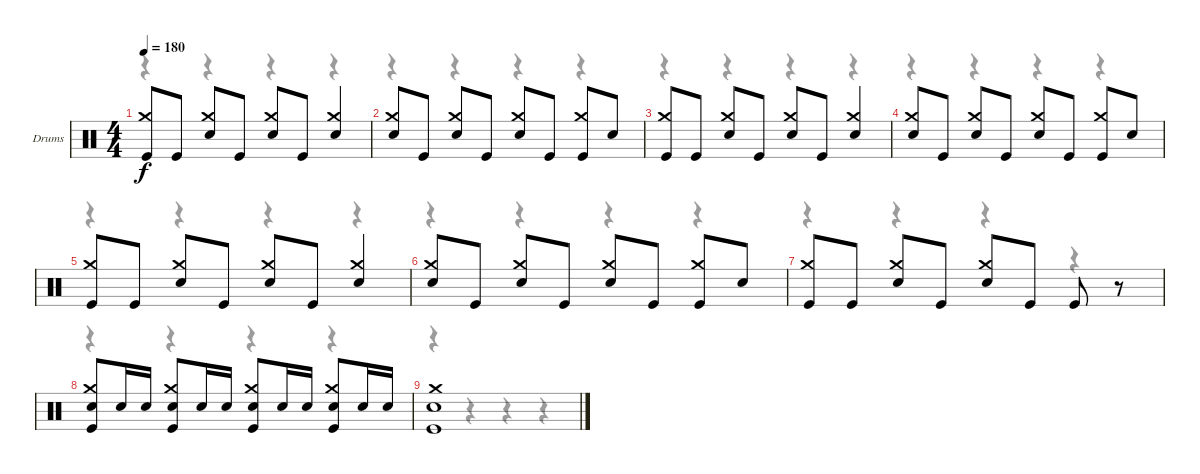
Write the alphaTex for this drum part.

\bracketExtendMode groupsimilarinstruments
\firstSystemTrackNameOrientation horizontal
\otherSystemsTrackNameOrientation horizontal
\track ("Drumkit" "Drums") {instrument percussion}
\staff {score}
\articulation defaults
\voice
\ts (4 4)
\tempo 180
\clef neutral
\ks c
("Crash medium (hit)" "Kick (hit)").8{dy f} "Kick (hit)".8 ("Crash medium (hit)" "Snare (hit) 2").8 "Kick (hit)".8 ("Crash medium (hit)" "Snare (hit) 2").8 "Kick (hit)".8 ("Crash medium (hit)" "Snare (hit) 2").4 |
("Crash medium (hit)" "Snare (hit) 2").8 "Kick (hit)".8 ("Crash medium (hit)" "Snare (hit) 2").8 "Kick (hit)".8 ("Crash medium (hit)" "Snare (hit) 2").8 "Kick (hit)".8 ("Crash medium (hit)" "Kick (hit)").8 "Snare (hit) 2".8 |
("Crash medium (hit)" "Kick (hit)").8 "Kick (hit)".8 ("Crash medium (hit)" "Snare (hit) 2").8 "Kick (hit)".8 ("Crash medium (hit)" "Snare (hit) 2").8 "Kick (hit)".8 ("Crash medium (hit)" "Snare (hit) 2").4 |
("Crash medium (hit)" "Snare (hit) 2").8 "Kick (hit)".8 ("Crash medium (hit)" "Snare (hit) 2").8 "Kick (hit)".8 ("Crash medium (hit)" "Snare (hit) 2").8 "Kick (hit)".8 ("Crash medium (hit)" "Kick (hit)").8 "Snare (hit) 2".8 |
("Crash medium (hit)" "Kick (hit)").8 "Kick (hit)".8 ("Crash medium (hit)" "Snare (hit) 2").8 "Kick (hit)".8 ("Crash medium (hit)" "Snare (hit) 2").8 "Kick (hit)".8 ("Crash medium (hit)" "Snare (hit) 2").4 |
("Crash medium (hit)" "Snare (hit) 2").8 "Kick (hit)".8 ("Crash medium (hit)" "Snare (hit) 2").8 "Kick (hit)".8 ("Crash medium (hit)" "Snare (hit) 2").8 "Kick (hit)".8 ("Crash medium (hit)" "Kick (hit)").8 "Snare (hit) 2".8 |
("Crash medium (hit)" "Kick (hit)").8 "Kick (hit)".8 ("Crash medium (hit)" "Snare (hit) 2").8 "Kick (hit)".8 ("Snare (hit) 2" "Crash medium (hit)").8 "Kick (hit)".8 "Kick (hit)".8 r.8 |
("Crash medium (hit)" "Snare (hit) 2" "Kick (hit)").8 "Snare (hit) 2".16 "Snare (hit) 2".16 ("Crash medium (hit)" "Snare (hit) 2" "Kick (hit)").8 "Snare (hit) 2".16 "Snare (hit) 2".16 ("Crash medium (hit)" "Snare (hit) 2" "Kick (hit)").8 "Snare (hit) 2".16 "Snare (hit) 2".16 ("Crash medium (hit)" "Snare (hit) 2" "Kick (hit)").8 "Snare (hit) 2".16 "Snare (hit) 2".16 |
("Crash medium (hit)" "Snare (hit) 2" "Kick (hit)").1
\voice
\clef neutral
\ottava regular
\simile none
\ks c
r.4{dy mf} r.4 r.4 r.4 |
r.4 r.4 r.4 r.4 |
r.4 r.4 r.4 r.4 |
r.4 r.4 r.4 r.4 |
r.4 r.4 r.4 r.4 |
r.4 r.4 r.4 r.4 |
r.4 r.4 r.4 r.4 |
r.4 r.4 r.4 r.4 |
r.4 r.4 r.4 r.4
